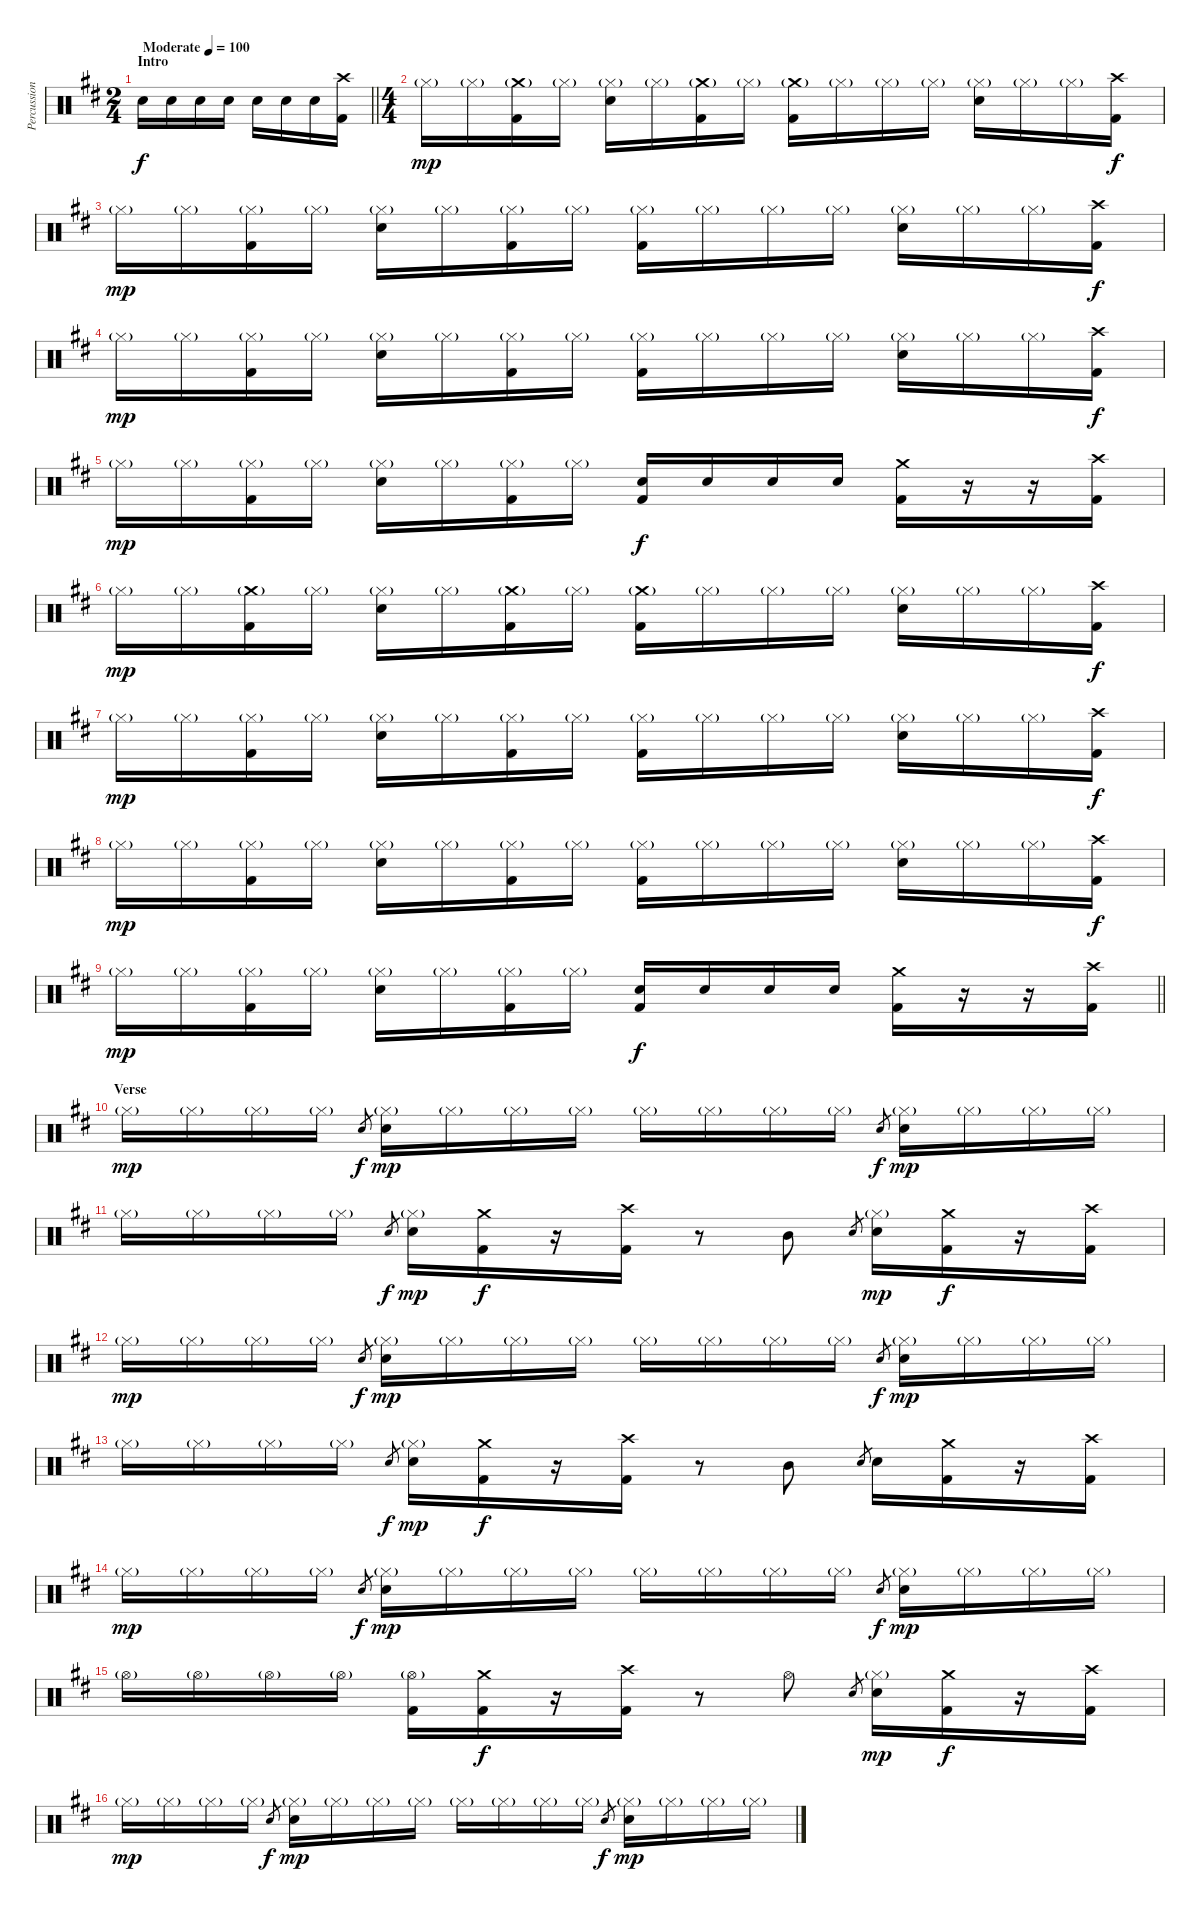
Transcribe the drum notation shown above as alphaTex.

\track ("Percussion" "Percussion") {instrument percussion}
\staff {score}
\articulation defaults
\ts (2 4)
\section ("" "Intro")
\tempo (100 "Moderate")
\clef neutral
\barLineRight lightlight
\ks bminor "Snare (hit) 2".16{dy f} "Snare (hit) 2".16 "Snare (hit) 2".16 "Snare (hit) 2".16 "Snare (hit) 2".16 "Snare (hit) 2".16 "Snare (hit) 2".16
("Crash high (hit)" "Kick (hit) 2").16 |
\ts (4 4)
"Hi-Hat (closed)"{g}.16{dy mp} "Hi-Hat (closed)"{g}.16 ("Crash medium (hit)"{g} "Kick (hit) 2").16 "Hi-Hat (closed)"{g}.16 ("Hi-Hat (closed)"{g} "Snare (hit) 2").16 "Hi-Hat (closed)"{g}.16 ("Crash medium (hit)"{g} "Kick (hit) 2").16 "Hi-Hat (closed)"{g}.16 ("Crash medium (hit)"{g} "Kick (hit) 2").16 "Hi-Hat (closed)"{g}.16 "Hi-Hat (closed)"{g}.16 "Hi-Hat (closed)"{g}.16 ("Hi-Hat (closed)"{g} "Snare (hit) 2").16 "Hi-Hat (closed)"{g}.16 "Hi-Hat (closed)"{g}.16 ("Crash high (hit)" "Kick (hit) 2").16{dy f} |
"Hi-Hat (closed)"{g}.16{dy mp} "Hi-Hat (closed)"{g}.16 ("Hi-Hat (closed)"{g} "Kick (hit) 2").16 "Hi-Hat (closed)"{g}.16 ("Hi-Hat (closed)"{g} "Snare (hit) 2").16 "Hi-Hat (closed)"{g}.16 ("Hi-Hat (closed)"{g} "Kick (hit) 2").16 "Hi-Hat (closed)"{g}.16 ("Hi-Hat (closed)"{g} "Kick (hit) 2").16 "Hi-Hat (closed)"{g}.16 "Hi-Hat (closed)"{g}.16 "Hi-Hat (closed)"{g}.16 ("Hi-Hat (closed)"{g} "Snare (hit) 2").16 "Hi-Hat (closed)"{g}.16 "Hi-Hat (closed)"{g}.16 ("Crash high (hit)" "Kick (hit) 2").16{dy f} |
"Hi-Hat (closed)"{g}.16{dy mp} "Hi-Hat (closed)"{g}.16 ("Hi-Hat (closed)"{g} "Kick (hit) 2").16 "Hi-Hat (closed)"{g}.16 ("Hi-Hat (closed)"{g} "Snare (hit) 2").16 "Hi-Hat (closed)"{g}.16 ("Hi-Hat (closed)"{g} "Kick (hit) 2").16 "Hi-Hat (closed)"{g}.16 ("Hi-Hat (closed)"{g} "Kick (hit) 2").16 "Hi-Hat (closed)"{g}.16 "Hi-Hat (closed)"{g}.16 "Hi-Hat (closed)"{g}.16 ("Hi-Hat (closed)"{g} "Snare (hit) 2").16 "Hi-Hat (closed)"{g}.16 "Hi-Hat (closed)"{g}.16 ("Crash high (hit)" "Kick (hit) 2").16{dy f} |
"Hi-Hat (closed)"{g}.16{dy mp} "Hi-Hat (closed)"{g}.16 ("Hi-Hat (closed)"{g} "Kick (hit) 2").16 "Hi-Hat (closed)"{g}.16 ("Hi-Hat (closed)"{g} "Snare (hit) 2").16 "Hi-Hat (closed)"{g}.16 ("Hi-Hat (closed)"{g} "Kick (hit) 2").16 "Hi-Hat (closed)"{g}.16 ("Snare (hit) 2" "Kick (hit) 2").16{dy f} "Snare (hit) 2".16 "Snare (hit) 2".16 "Snare (hit) 2".16 ("Crash medium (hit)" "Kick (hit) 2").16 r.16 r.16 ("Crash high (hit)" "Kick (hit) 2").16 |
"Hi-Hat (closed)"{g}.16{dy mp} "Hi-Hat (closed)"{g}.16 ("Crash medium (hit)"{g} "Kick (hit) 2").16 "Hi-Hat (closed)"{g}.16 ("Hi-Hat (closed)"{g} "Snare (hit) 2").16 "Hi-Hat (closed)"{g}.16 ("Crash medium (hit)"{g} "Kick (hit) 2").16 "Hi-Hat (closed)"{g}.16 ("Crash medium (hit)"{g} "Kick (hit) 2").16 "Hi-Hat (closed)"{g}.16 "Hi-Hat (closed)"{g}.16 "Hi-Hat (closed)"{g}.16 ("Hi-Hat (closed)"{g} "Snare (hit) 2").16 "Hi-Hat (closed)"{g}.16 "Hi-Hat (closed)"{g}.16 ("Crash high (hit)" "Kick (hit) 2").16{dy f} |
"Hi-Hat (closed)"{g}.16{dy mp} "Hi-Hat (closed)"{g}.16 ("Hi-Hat (closed)"{g} "Kick (hit) 2").16 "Hi-Hat (closed)"{g}.16 ("Hi-Hat (closed)"{g} "Snare (hit) 2").16 "Hi-Hat (closed)"{g}.16 ("Hi-Hat (closed)"{g} "Kick (hit) 2").16 "Hi-Hat (closed)"{g}.16 ("Hi-Hat (closed)"{g} "Kick (hit) 2").16 "Hi-Hat (closed)"{g}.16 "Hi-Hat (closed)"{g}.16 "Hi-Hat (closed)"{g}.16 ("Hi-Hat (closed)"{g} "Snare (hit) 2").16 "Hi-Hat (closed)"{g}.16 "Hi-Hat (closed)"{g}.16 ("Crash high (hit)" "Kick (hit) 2").16{dy f} |
"Hi-Hat (closed)"{g}.16{dy mp} "Hi-Hat (closed)"{g}.16 ("Hi-Hat (closed)"{g} "Kick (hit) 2").16 "Hi-Hat (closed)"{g}.16 ("Hi-Hat (closed)"{g} "Snare (hit) 2").16 "Hi-Hat (closed)"{g}.16 ("Hi-Hat (closed)"{g} "Kick (hit) 2").16 "Hi-Hat (closed)"{g}.16 ("Hi-Hat (closed)"{g} "Kick (hit) 2").16 "Hi-Hat (closed)"{g}.16 "Hi-Hat (closed)"{g}.16 "Hi-Hat (closed)"{g}.16 ("Hi-Hat (closed)"{g} "Snare (hit) 2").16 "Hi-Hat (closed)"{g}.16 "Hi-Hat (closed)"{g}.16 ("Crash high (hit)" "Kick (hit) 2").16{dy f} |
\barLineRight lightlight "Hi-Hat (closed)"{g}.16{dy mp} "Hi-Hat (closed)"{g}.16
("Hi-Hat (closed)"{g} "Kick (hit) 2").16 "Hi-Hat (closed)"{g}.16 ("Hi-Hat (closed)"{g} "Snare (hit) 2").16 "Hi-Hat (closed)"{g}.16 ("Hi-Hat (closed)"{g} "Kick (hit) 2").16 "Hi-Hat (closed)"{g}.16 ("Snare (hit) 2" "Kick (hit) 2").16{dy f} "Snare (hit) 2".16 "Snare (hit) 2".16 "Snare (hit) 2".16 ("Crash medium (hit)" "Kick (hit) 2").16 r.16 r.16 ("Crash high (hit)" "Kick (hit) 2").16 |
\section ("" "Verse")
"Hi-Hat (closed)"{g}.16{dy mp} "Hi-Hat (closed)"{g}.16 "Hi-Hat (closed)"{g}.16 "Hi-Hat (closed)"{g}.16 "Snare (hit) 2"{x}.8{gr dy f} ("Hi-Hat (closed)"{g} "Snare (hit) 2").16{dy mp} "Hi-Hat (closed)"{g}.16 "Hi-Hat (closed)"{g}.16 "Hi-Hat (closed)"{g}.16 "Hi-Hat (closed)"{g}.16 "Hi-Hat (closed)"{g}.16 "Hi-Hat (closed)"{g}.16 "Hi-Hat (closed)"{g}.16 "Snare (hit) 2".8{gr dy f} ("Hi-Hat (closed)"{g} "Snare (hit) 2").16{dy mp} "Hi-Hat (closed)"{g}.16 "Hi-Hat (closed)"{g}.16 "Hi-Hat (closed)"{g}.16 |
"Hi-Hat (closed)"{g}.16 "Hi-Hat (closed)"{g}.16 "Hi-Hat (closed)"{g}.16 "Hi-Hat (closed)"{g}.16 "Snare (hit) 2"{x}.8{gr dy f} ("Hi-Hat (closed)"{g} "Snare (hit) 2").16{dy mp} ("Crash medium (hit)" "Kick (hit) 2").16{dy f} r.16 ("Crash high (hit)" "Kick (hit) 2").16 r.8 "Mid Tom (hit)".8 "Snare (hit) 2".8{gr} ("Hi-Hat (closed)"{g} "Snare (hit) 2").16{dy mp} ("Crash medium (hit)" "Kick (hit) 2").16{dy f} r.16 ("Crash high (hit)" "Kick (hit) 2").16 |
"Hi-Hat (closed)"{g}.16{dy mp} "Hi-Hat (closed)"{g}.16 "Hi-Hat (closed)"{g}.16 "Hi-Hat (closed)"{g}.16 "Snare (hit) 2"{x}.8{gr dy f} ("Hi-Hat (closed)"{g} "Snare (hit) 2").16{dy mp} "Hi-Hat (closed)"{g}.16 "Hi-Hat (closed)"{g}.16 "Hi-Hat (closed)"{g}.16 "Hi-Hat (closed)"{g}.16 "Hi-Hat (closed)"{g}.16 "Hi-Hat (closed)"{g}.16 "Hi-Hat (closed)"{g}.16 "Snare (hit) 2".8{gr dy f} ("Hi-Hat (closed)"{g} "Snare (hit) 2").16{dy mp} "Hi-Hat (closed)"{g}.16 "Hi-Hat (closed)"{g}.16 "Hi-Hat (closed)"{g}.16 |
"Hi-Hat (closed)"{g}.16 "Hi-Hat (closed)"{g}.16 "Hi-Hat (closed)"{g}.16 "Hi-Hat (closed)"{g}.16 "Snare (hit) 2"{x}.8{gr dy f} ("Hi-Hat (closed)"{g} "Snare (hit) 2").16{dy mp} ("Crash medium (hit)" "Kick (hit) 2").16{dy f} r.16 ("Crash high (hit)" "Kick (hit) 2").16 r.8 "Mid Tom (hit)".8 "Snare (hit) 2".8{gr} "Snare (hit) 2".16 ("Crash medium (hit)" "Kick (hit) 2").16 r.16 ("Crash high (hit)" "Kick (hit) 2").16 |
"Hi-Hat (closed)"{g}.16{dy mp} "Hi-Hat (closed)"{g}.16 "Hi-Hat (closed)"{g}.16 "Hi-Hat (closed)"{g}.16 "Snare (hit) 2"{x}.8{gr dy f} ("Hi-Hat (closed)"{g} "Snare (hit) 2").16{dy mp} "Hi-Hat (closed)"{g}.16 "Hi-Hat (closed)"{g}.16 "Hi-Hat (closed)"{g}.16 "Hi-Hat (closed)"{g}.16 "Hi-Hat (closed)"{g}.16 "Hi-Hat (closed)"{g}.16 "Hi-Hat (closed)"{g}.16 "Snare (hit) 2".8{gr dy f} ("Hi-Hat (closed)"{g} "Snare (hit) 2").16{dy mp} "Hi-Hat (closed)"{g}.16 "Hi-Hat (closed)"{g}.16 "Hi-Hat (closed)"{g}.16 |
"Hi-Hat (open)"{g}.16 "Hi-Hat (open)"{g}.16 "Hi-Hat (open)"{g}.16 "Hi-Hat (open)"{g}.16 ("Hi-Hat (open)"{g} "Kick (hit) 2").16 ("Crash medium (hit)" "Kick (hit) 2").16{dy f} r.16 ("Crash high (hit)" "Kick (hit) 2").16 r.8 "Hi-Hat (open)".8 "Snare (hit) 2".8{gr} ("Hi-Hat (closed)"{g} "Snare (hit) 2").16{dy mp} ("Crash medium (hit)" "Kick (hit) 2").16{dy f} r.16 ("Crash high (hit)" "Kick (hit) 2").16 |
"Hi-Hat (closed)"{g}.16{dy mp} "Hi-Hat (closed)"{g}.16 "Hi-Hat (closed)"{g}.16 "Hi-Hat (closed)"{g}.16 "Snare (hit) 2"{x}.8{gr dy f} ("Hi-Hat (closed)"{g} "Snare (hit) 2").16{dy mp} "Hi-Hat (closed)"{g}.16 "Hi-Hat (closed)"{g}.16 "Hi-Hat (closed)"{g}.16 "Hi-Hat (closed)"{g}.16 "Hi-Hat (closed)"{g}.16 "Hi-Hat (closed)"{g}.16 "Hi-Hat (closed)"{g}.16 "Snare (hit) 2".8{gr dy f} ("Hi-Hat (closed)"{g} "Snare (hit) 2").16{dy mp} "Hi-Hat (closed)"{g}.16 "Hi-Hat (closed)"{g}.16 "Hi-Hat (closed)"{g}.16
